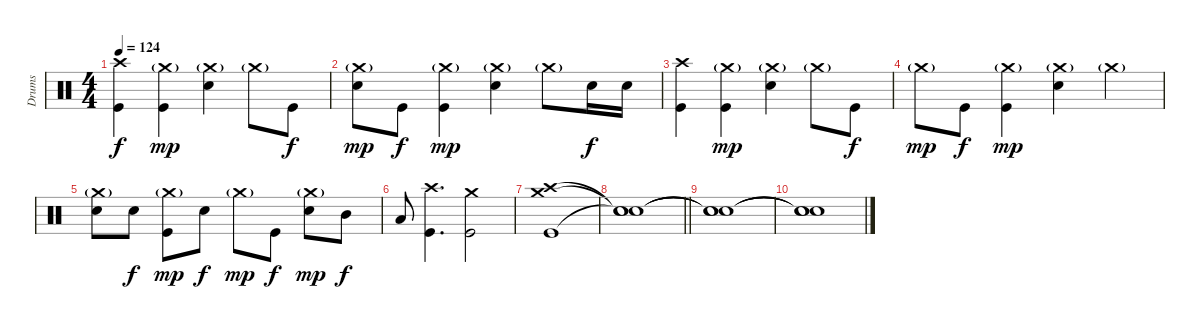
\track ("Drums" "Drums") {instrument percussion}
\staff {score}
\articulation defaults
\ts (4 4)
\tempo 124
\clef neutral
\ks c
("Crash high (hit)" "Kick (hit)").4{dy f} ("Crash medium (hit)"{g} "Kick (hit)").4{dy mp} ("Crash medium (hit)"{g} "Snare (hit) 2").4 "Crash medium (hit)"{g}.8 "Kick (hit)".8{dy f} |
("Crash medium (hit)"{g} "Snare (hit) 2").8{dy mp} "Kick (hit)".8{dy f} ("Crash medium (hit)"{g} "Kick (hit)").4{dy mp} ("Crash medium (hit)"{g} "Snare (hit) 2").4 "Crash medium (hit)"{g}.8 "Snare (hit) 2".16{dy f} "Snare (hit) 2".16 |
("Crash high (hit)" "Kick (hit)").4 ("Crash medium (hit)"{g} "Kick (hit)").4{dy mp} ("Crash medium (hit)"{g} "Snare (hit) 2").4 "Crash medium (hit)"{g}.8 "Kick (hit)".8{dy f} |
"Crash medium (hit)"{g}.8{dy mp} "Kick (hit)".8{dy f} ("Crash medium (hit)"{g} "Kick (hit)").4{dy mp} ("Crash medium (hit)"{g} "Snare (hit) 2").4 "Crash medium (hit)"{g}.4 |
("Crash medium (hit)"{g} "Snare (hit) 2").8 "Snare (hit) 2".8{dy f} ("Crash medium (hit)"{g} "Kick (hit)").8{dy mp} "Snare (hit) 2".8{dy f} "Crash medium (hit)"{g}.8{dy mp} "Kick (hit)".8{dy f} ("Crash medium (hit)"{g} "Snare (hit) 2").8{dy mp} "Mid Tom (hit)".8{dy f} |
"Low Tom (hit)".8 ("Crash high (hit)" "Kick (hit)").4{d} ("Crash medium (hit)" "Kick (hit)").2 |
("Crash high (hit)" "Crash medium (hit)" "Kick (hit)").1 |
\barLineRight lightlight
("Snare (hit)"{t} "Snare (hit)"{t} "Snare (hit)"{t}).1 |
("Snare (hit)"{t} "Snare (hit)"{t} "Snare (hit)"{t}).1 |
("Snare (hit)"{t} "Snare (hit)"{t} "Snare (hit)"{t}).1
